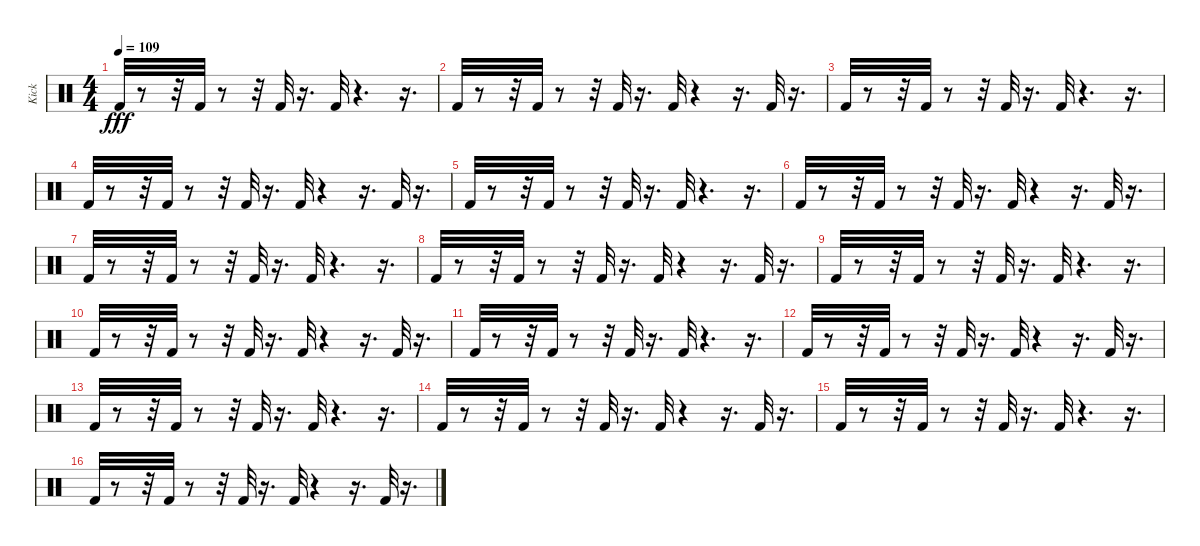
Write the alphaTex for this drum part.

\track ("Kick" "Kick") {instrument percussion}
\staff {score}
\articulation defaults
\ts (4 4)
\tempo 109
\clef neutral
\ks c "Kick (hit) 2".32{dy fff}
r.8 r.32 "Kick (hit) 2".32 r.8 r.32 "Kick (hit) 2".32 r.16{d} "Kick (hit) 2".32 r.4{d} r.16{d} |
"Kick (hit) 2".32 r.8 r.32 "Kick (hit) 2".32 r.8 r.32 "Kick (hit) 2".32 r.16{d} "Kick (hit) 2".32 r.4 r.16{d} "Kick (hit) 2".32 r.16{d} |
"Kick (hit) 2".32 r.8 r.32 "Kick (hit) 2".32 r.8 r.32 "Kick (hit) 2".32 r.16{d} "Kick (hit) 2".32 r.4{d} r.16{d} |
"Kick (hit) 2".32 r.8 r.32 "Kick (hit) 2".32 r.8 r.32 "Kick (hit) 2".32 r.16{d} "Kick (hit) 2".32 r.4 r.16{d} "Kick (hit) 2".32 r.16{d} |
"Kick (hit) 2".32 r.8 r.32 "Kick (hit) 2".32 r.8 r.32 "Kick (hit) 2".32 r.16{d} "Kick (hit) 2".32 r.4{d} r.16{d} |
"Kick (hit) 2".32 r.8 r.32 "Kick (hit) 2".32 r.8 r.32 "Kick (hit) 2".32 r.16{d} "Kick (hit) 2".32 r.4 r.16{d} "Kick (hit) 2".32 r.16{d} |
"Kick (hit) 2".32 r.8 r.32 "Kick (hit) 2".32 r.8 r.32 "Kick (hit) 2".32 r.16{d} "Kick (hit) 2".32 r.4{d} r.16{d} |
"Kick (hit) 2".32 r.8 r.32 "Kick (hit) 2".32 r.8 r.32 "Kick (hit) 2".32 r.16{d} "Kick (hit) 2".32 r.4 r.16{d} "Kick (hit) 2".32 r.16{d} |
"Kick (hit) 2".32 r.8 r.32 "Kick (hit) 2".32 r.8 r.32 "Kick (hit) 2".32 r.16{d} "Kick (hit) 2".32 r.4{d} r.16{d} |
"Kick (hit) 2".32 r.8 r.32 "Kick (hit) 2".32 r.8 r.32 "Kick (hit) 2".32 r.16{d} "Kick (hit) 2".32 r.4 r.16{d} "Kick (hit) 2".32 r.16{d} |
"Kick (hit) 2".32 r.8 r.32 "Kick (hit) 2".32 r.8 r.32 "Kick (hit) 2".32 r.16{d} "Kick (hit) 2".32 r.4{d} r.16{d} |
"Kick (hit) 2".32 r.8 r.32 "Kick (hit) 2".32 r.8 r.32 "Kick (hit) 2".32 r.16{d} "Kick (hit) 2".32 r.4 r.16{d} "Kick (hit) 2".32 r.16{d} |
"Kick (hit) 2".32 r.8 r.32 "Kick (hit) 2".32 r.8 r.32 "Kick (hit) 2".32 r.16{d} "Kick (hit) 2".32 r.4{d} r.16{d} |
"Kick (hit) 2".32 r.8 r.32 "Kick (hit) 2".32 r.8 r.32 "Kick (hit) 2".32 r.16{d} "Kick (hit) 2".32 r.4 r.16{d} "Kick (hit) 2".32 r.16{d} |
"Kick (hit) 2".32 r.8 r.32 "Kick (hit) 2".32 r.8 r.32 "Kick (hit) 2".32 r.16{d} "Kick (hit) 2".32 r.4{d} r.16{d} |
"Kick (hit) 2".32 r.8 r.32 "Kick (hit) 2".32 r.8 r.32 "Kick (hit) 2".32 r.16{d} "Kick (hit) 2".32 r.4 r.16{d} "Kick (hit) 2".32 r.16{d}
